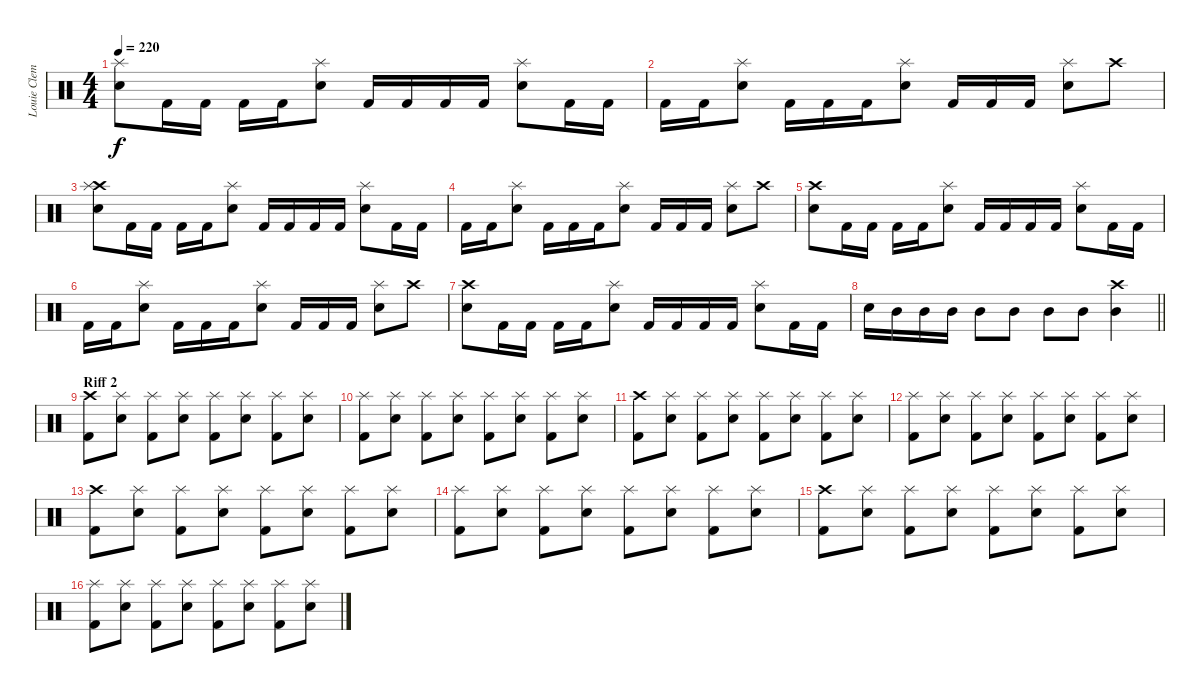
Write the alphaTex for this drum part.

\track ("Louie Clemente (Drums)" "Louie Clem") {instrument percussion}
\staff {score}
\articulation defaults
\ts (4 4)
\tempo 220
\clef neutral
\ks c
("Splash (hit)" "Electric Snare (hit)").8{dy f} "Kick (hit) 2".16 "Kick (hit) 2".16 "Kick (hit) 2".16 "Kick (hit) 2".16 ("Splash (hit)" "Electric Snare (hit)").8 "Kick (hit) 2".16 "Kick (hit) 2".16 "Kick (hit) 2".16 "Kick (hit) 2".16 ("Splash (hit)" "Electric Snare (hit)").8 "Kick (hit) 2".16 "Kick (hit) 2".16 |
"Kick (hit) 2".16 "Kick (hit) 2".16 ("Splash (hit)" "Electric Snare (hit)").8 "Kick (hit) 2".16 "Kick (hit) 2".16 "Kick (hit) 2".16 ("Splash (hit)" "Electric Snare (hit)").8 "Kick (hit) 2".16 "Kick (hit) 2".16 "Kick (hit) 2".16 ("Splash (hit)" "Electric Snare (hit)").8 "Crash high (hit)".8 |
("Crash high (hit)" "Splash (hit)" "Electric Snare (hit)").8 "Kick (hit) 2".16 "Kick (hit) 2".16 "Kick (hit) 2".16 "Kick (hit) 2".16 ("Splash (hit)" "Electric Snare (hit)").8 "Kick (hit) 2".16 "Kick (hit) 2".16 "Kick (hit) 2".16 "Kick (hit) 2".16 ("Splash (hit)" "Electric Snare (hit)").8 "Kick (hit) 2".16 "Kick (hit) 2".16 |
"Kick (hit) 2".16 "Kick (hit) 2".16 ("Splash (hit)" "Electric Snare (hit)").8 "Kick (hit) 2".16 "Kick (hit) 2".16 "Kick (hit) 2".16 ("Splash (hit)" "Electric Snare (hit)").8 "Kick (hit) 2".16 "Kick (hit) 2".16 "Kick (hit) 2".16 ("Splash (hit)" "Electric Snare (hit)").8 "Crash high (hit)".8 |
("Crash high (hit)" "Electric Snare (hit)").8 "Kick (hit) 2".16 "Kick (hit) 2".16 "Kick (hit) 2".16 "Kick (hit) 2".16 ("Splash (hit)" "Electric Snare (hit)").8 "Kick (hit) 2".16 "Kick (hit) 2".16 "Kick (hit) 2".16 "Kick (hit) 2".16 ("Splash (hit)" "Electric Snare (hit)").8 "Kick (hit) 2".16 "Kick (hit) 2".16 |
"Kick (hit) 2".16 "Kick (hit) 2".16 ("Splash (hit)" "Electric Snare (hit)").8 "Kick (hit) 2".16 "Kick (hit) 2".16 "Kick (hit) 2".16 ("Splash (hit)" "Electric Snare (hit)").8 "Kick (hit) 2".16 "Kick (hit) 2".16 "Kick (hit) 2".16 ("Splash (hit)" "Electric Snare (hit)").8 "Crash high (hit)".8 |
("Crash high (hit)" "Electric Snare (hit)").8 "Kick (hit) 2".16 "Kick (hit) 2".16 "Kick (hit) 2".16 "Kick (hit) 2".16 ("Splash (hit)" "Electric Snare (hit)").8 "Kick (hit) 2".16 "Kick (hit) 2".16 "Kick (hit) 2".16 "Kick (hit) 2".16 ("Splash (hit)" "Electric Snare (hit)").8 "Kick (hit) 2".16 "Kick (hit) 2".16 |
\barLineRight lightlight "Electric Snare (hit)".16 "Mid Tom (hit)".16 "Mid Tom (hit)".16 "Mid Tom (hit)".16 "Mid Tom (hit)".8 "Mid Tom (hit)".8 "Mid Tom (hit)".8 "Mid Tom (hit)".8
("Crash high (hit)" "Mid Tom (hit)").4 |
\section ("" "Riff 2")
("Crash high (hit)" "Kick (hit) 2").8 ("Splash (hit)" "Electric Snare (hit)").8 ("Splash (hit)" "Kick (hit) 2").8 ("Splash (hit)" "Electric Snare (hit)").8 ("Splash (hit)" "Kick (hit) 2").8 ("Splash (hit)" "Electric Snare (hit)").8 ("Splash (hit)" "Kick (hit) 2").8 ("Splash (hit)" "Electric Snare (hit)").8 |
("Splash (hit)" "Kick (hit) 2").8 ("Splash (hit)" "Electric Snare (hit)").8 ("Splash (hit)" "Kick (hit) 2").8 ("Splash (hit)" "Electric Snare (hit)").8 ("Splash (hit)" "Kick (hit) 2").8 ("Splash (hit)" "Electric Snare (hit)").8 ("Splash (hit)" "Kick (hit) 2").8 ("Splash (hit)" "Electric Snare (hit)").8 |
("Crash high (hit)" "Kick (hit) 2").8 ("Splash (hit)" "Electric Snare (hit)").8 ("Splash (hit)" "Kick (hit) 2").8 ("Splash (hit)" "Electric Snare (hit)").8 ("Splash (hit)" "Kick (hit) 2").8 ("Splash (hit)" "Electric Snare (hit)").8 ("Splash (hit)" "Kick (hit) 2").8 ("Splash (hit)" "Electric Snare (hit)").8 |
("Splash (hit)" "Kick (hit) 2").8 ("Splash (hit)" "Electric Snare (hit)").8 ("Splash (hit)" "Kick (hit) 2").8 ("Splash (hit)" "Electric Snare (hit)").8 ("Splash (hit)" "Kick (hit) 2").8 ("Splash (hit)" "Electric Snare (hit)").8 ("Splash (hit)" "Kick (hit) 2").8 ("Splash (hit)" "Electric Snare (hit)").8 |
("Crash high (hit)" "Kick (hit) 2").8 ("Splash (hit)" "Electric Snare (hit)").8 ("Splash (hit)" "Kick (hit) 2").8 ("Splash (hit)" "Electric Snare (hit)").8 ("Splash (hit)" "Kick (hit) 2").8 ("Splash (hit)" "Electric Snare (hit)").8 ("Splash (hit)" "Kick (hit) 2").8 ("Splash (hit)" "Electric Snare (hit)").8 |
("Splash (hit)" "Kick (hit) 2").8 ("Splash (hit)" "Electric Snare (hit)").8 ("Splash (hit)" "Kick (hit) 2").8 ("Splash (hit)" "Electric Snare (hit)").8 ("Splash (hit)" "Kick (hit) 2").8 ("Splash (hit)" "Electric Snare (hit)").8 ("Splash (hit)" "Kick (hit) 2").8 ("Splash (hit)" "Electric Snare (hit)").8 |
("Crash high (hit)" "Kick (hit) 2").8 ("Splash (hit)" "Electric Snare (hit)").8 ("Splash (hit)" "Kick (hit) 2").8 ("Splash (hit)" "Electric Snare (hit)").8 ("Splash (hit)" "Kick (hit) 2").8 ("Splash (hit)" "Electric Snare (hit)").8 ("Splash (hit)" "Kick (hit) 2").8 ("Splash (hit)" "Electric Snare (hit)").8 |
("Splash (hit)" "Kick (hit) 2").8 ("Splash (hit)" "Electric Snare (hit)").8 ("Splash (hit)" "Kick (hit) 2").8 ("Splash (hit)" "Electric Snare (hit)").8 ("Splash (hit)" "Kick (hit) 2").8 ("Splash (hit)" "Electric Snare (hit)").8 ("Splash (hit)" "Kick (hit) 2").8 ("Splash (hit)" "Electric Snare (hit)").8
